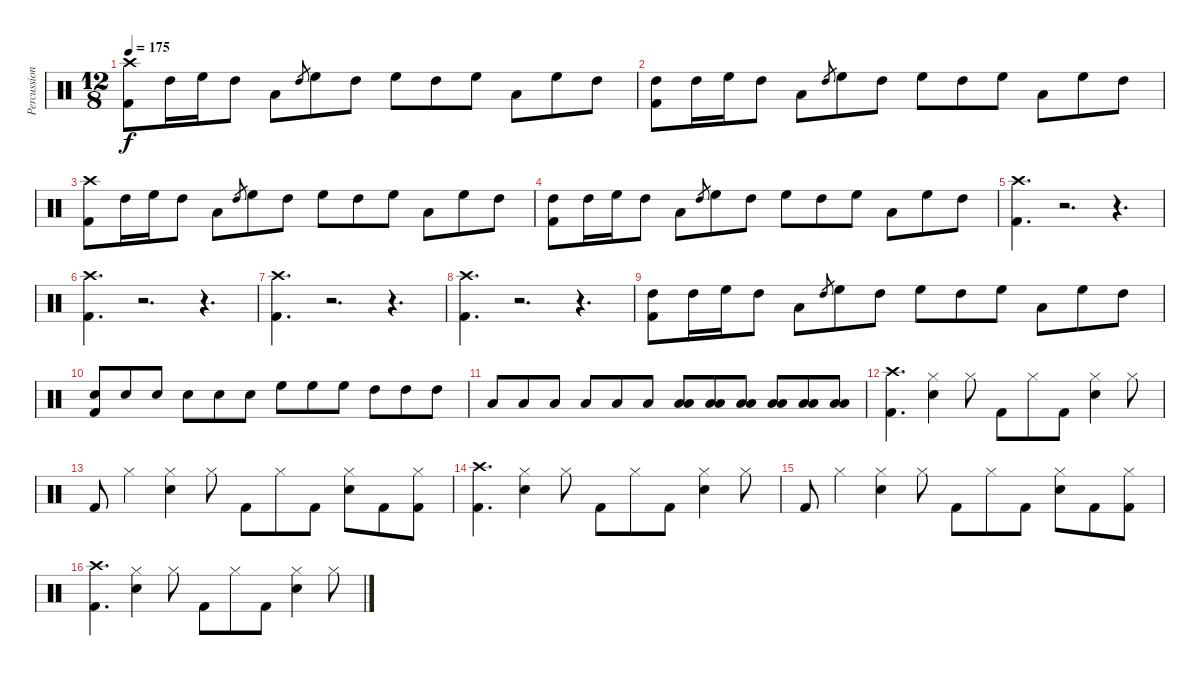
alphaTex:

\track ("Percussion" "Percussion") {instrument percussion}
\staff {score}
\articulation defaults
\ts (12 8)
\tempo 175
\clef neutral
\ks c
("Kick (hit) 2" "Crash high (hit)").8{dy f} "High Tom (hit)".16 "High Floor Tom (hit)".16 "High Tom (hit)".8 "Low Tom (hit)".8 "High Tom (hit)".8{gr} "High Floor Tom (hit)".8 "High Tom (hit)".8 "High Floor Tom (hit)".8 "High Tom (hit)".8 "High Floor Tom (hit)".8 "Low Tom (hit)".8 "High Floor Tom (hit)".8 "High Tom (hit)".8 |
("Kick (hit) 2" "High Tom (hit)").8 "High Tom (hit)".16 "High Floor Tom (hit)".16 "High Tom (hit)".8 "Low Tom (hit)".8 "High Tom (hit)".8{gr} "High Floor Tom (hit)".8 "High Tom (hit)".8 "High Floor Tom (hit)".8 "High Tom (hit)".8 "High Floor Tom (hit)".8 "Low Tom (hit)".8 "High Floor Tom (hit)".8 "High Tom (hit)".8 |
("Kick (hit) 2" "Crash high (hit)").8 "High Tom (hit)".16 "High Floor Tom (hit)".16 "High Tom (hit)".8 "Low Tom (hit)".8 "High Tom (hit)".8{gr} "High Floor Tom (hit)".8 "High Tom (hit)".8 "High Floor Tom (hit)".8 "High Tom (hit)".8 "High Floor Tom (hit)".8 "Low Tom (hit)".8 "High Floor Tom (hit)".8 "High Tom (hit)".8 |
("Kick (hit) 2" "High Tom (hit)").8 "High Tom (hit)".16 "High Floor Tom (hit)".16 "High Tom (hit)".8 "Low Tom (hit)".8 "High Tom (hit)".8{gr} "High Floor Tom (hit)".8 "High Tom (hit)".8 "High Floor Tom (hit)".8 "High Tom (hit)".8 "High Floor Tom (hit)".8 "Low Tom (hit)".8 "High Floor Tom (hit)".8 "High Tom (hit)".8 |
("Kick (hit) 2" "Crash high (hit)").4{d} r.2{d} r.4{d} |
("Kick (hit) 2" "Crash high (hit)").4{d} r.2{d} r.4{d} |
("Kick (hit) 2" "Crash high (hit)").4{d} r.2{d} r.4{d} |
("Kick (hit) 2" "Crash high (hit)").4{d} r.2{d} r.4{d} |
("Kick (hit) 2" "High Tom (hit)").8 "High Tom (hit)".16 "High Floor Tom (hit)".16 "High Tom (hit)".8 "Low Tom (hit)".8 "High Tom (hit)".8{gr} "High Floor Tom (hit)".8 "High Tom (hit)".8 "High Floor Tom (hit)".8 "High Tom (hit)".8 "High Floor Tom (hit)".8 "Low Tom (hit)".8 "High Floor Tom (hit)".8 "High Tom (hit)".8 |
("Kick (hit) 2" "Snare (hit) 2").8 "Snare (hit) 2".8 "Snare (hit) 2".8 "Snare (hit) 2".8 "Snare (hit) 2".8 "Snare (hit) 2".8 "High Floor Tom (hit)".8 "High Floor Tom (hit)".8 "High Floor Tom (hit)".8 "High Tom (hit)".8 "High Tom (hit)".8 "High Tom (hit)".8 |
"Low Tom (hit)".8 "Low Tom (hit)".8 "Low Tom (hit)".8 "Low Floor Tom (hit)".8 "Low Floor Tom (hit)".8 "Low Floor Tom (hit)".8 ("Low Tom (hit)" "Low Floor Tom (hit)").8 ("Low Tom (hit)" "Low Floor Tom (hit)").8 ("Low Tom (hit)" "Low Floor Tom (hit)").8 ("Low Tom (hit)" "Low Floor Tom (hit)").8 ("Low Tom (hit)" "Low Floor Tom (hit)").8 ("Low Tom (hit)" "Low Floor Tom (hit)").8 |
("Kick (hit) 2" "Crash high (hit)").4{d} ("Snare (hit) 2" "Hi-Hat (closed)").4 "Hi-Hat (closed)".8 "Kick (hit) 2".8 "Hi-Hat (closed)".8 "Kick (hit) 2".8 ("Snare (hit) 2" "Hi-Hat (closed)").4 "Hi-Hat (closed)".8 |
"Kick (hit) 2".8 "Hi-Hat (closed)".4 ("Snare (hit) 2" "Hi-Hat (closed)").4 "Hi-Hat (closed)".8 "Kick (hit) 2".8 "Hi-Hat (closed)".8 "Kick (hit) 2".8 ("Snare (hit) 2" "Hi-Hat (closed)").8 "Kick (hit) 2".8 ("Kick (hit) 2" "Hi-Hat (closed)").8 |
("Kick (hit) 2" "Crash high (hit)").4{d} ("Snare (hit) 2" "Hi-Hat (closed)").4 "Hi-Hat (closed)".8 "Kick (hit) 2".8 "Hi-Hat (closed)".8 "Kick (hit) 2".8 ("Snare (hit) 2" "Hi-Hat (closed)").4 "Hi-Hat (closed)".8 |
"Kick (hit) 2".8 "Hi-Hat (closed)".4 ("Snare (hit) 2" "Hi-Hat (closed)").4 "Hi-Hat (closed)".8 "Kick (hit) 2".8 "Hi-Hat (closed)".8 "Kick (hit) 2".8 ("Snare (hit) 2" "Hi-Hat (closed)").8 "Kick (hit) 2".8 ("Kick (hit) 2" "Hi-Hat (closed)").8 |
("Kick (hit) 2" "Crash high (hit)").4{d} ("Snare (hit) 2" "Hi-Hat (closed)").4 "Hi-Hat (closed)".8 "Kick (hit) 2".8 "Hi-Hat (closed)".8 "Kick (hit) 2".8 ("Snare (hit) 2" "Hi-Hat (closed)").4 "Hi-Hat (closed)".8
